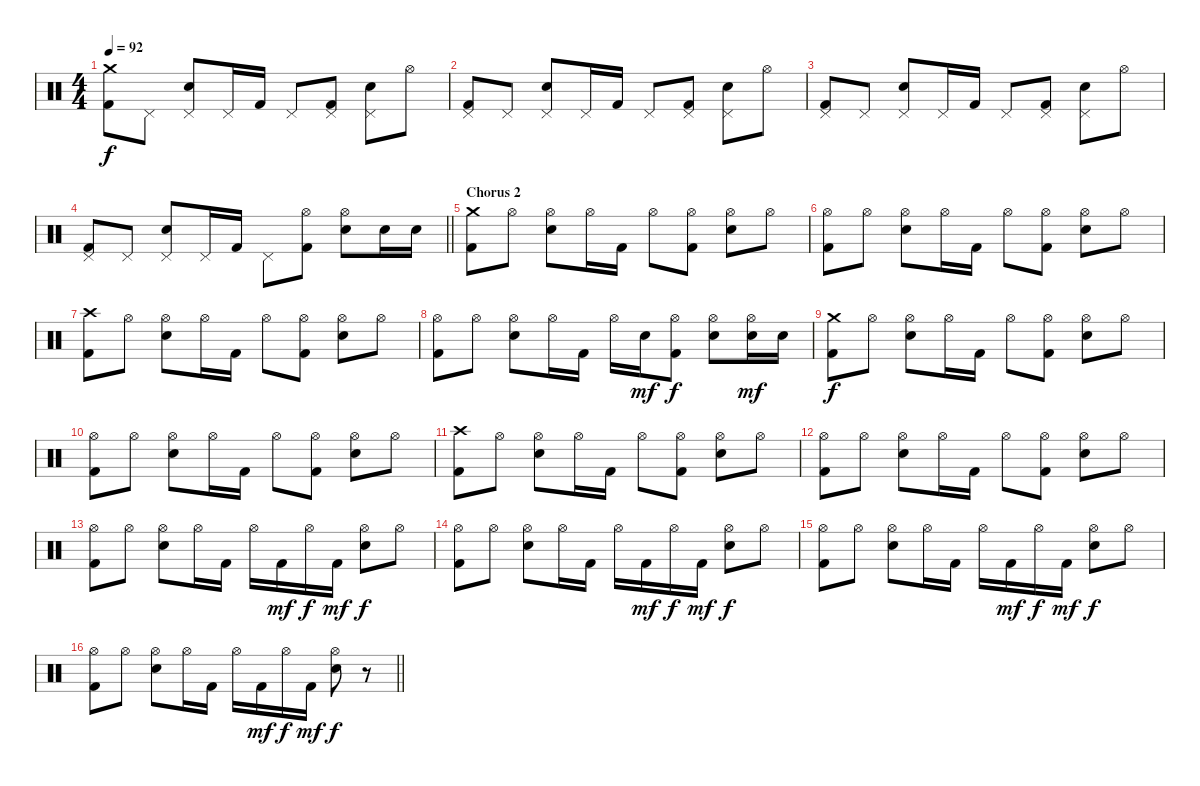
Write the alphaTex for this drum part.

\track "" {instrument percussion}
\staff {score}
\articulation defaults
\ts (4 4)
\tempo 92
\clef neutral
\ks c
("Crash medium (hit)" "Kick (hit) 2").8{dy f} "Pedal Hi-Hat (hit)".8 ("Pedal Hi-Hat (hit)" "Electric Snare (hit)").8 "Pedal Hi-Hat (hit)".16 "Kick (hit) 2".16 "Pedal Hi-Hat (hit)".8 ("Pedal Hi-Hat (hit)" "Kick (hit) 2").8 ("Pedal Hi-Hat (hit)" "Electric Snare (hit)").8 "Hi-Hat (open)".8 |
("Pedal Hi-Hat (hit)" "Kick (hit) 2").8 "Pedal Hi-Hat (hit)".8 ("Pedal Hi-Hat (hit)" "Electric Snare (hit)").8 "Pedal Hi-Hat (hit)".16 "Kick (hit) 2".16 "Pedal Hi-Hat (hit)".8 ("Pedal Hi-Hat (hit)" "Kick (hit) 2").8 ("Pedal Hi-Hat (hit)" "Electric Snare (hit)").8 "Hi-Hat (open)".8 |
("Pedal Hi-Hat (hit)" "Kick (hit) 2").8 "Pedal Hi-Hat (hit)".8 ("Pedal Hi-Hat (hit)" "Electric Snare (hit)").8 "Pedal Hi-Hat (hit)".16 "Kick (hit) 2".16 "Pedal Hi-Hat (hit)".8 ("Pedal Hi-Hat (hit)" "Kick (hit) 2").8 ("Pedal Hi-Hat (hit)" "Electric Snare (hit)").8 "Hi-Hat (open)".8 |
\barLineRight lightlight
("Pedal Hi-Hat (hit)" "Kick (hit) 2").8 "Pedal Hi-Hat (hit)".8 ("Pedal Hi-Hat (hit)" "Electric Snare (hit)").8 "Pedal Hi-Hat (hit)".16 "Kick (hit) 2".16 "Pedal Hi-Hat (hit)".8 ("Hi-Hat (open)" "Kick (hit) 2").8 ("Hi-Hat (open)" "Electric Snare (hit)").8 "Electric Snare (hit)".16 "Electric Snare (hit)".16 |
\section ("" "Chorus 2")
("Crash medium (hit)" "Kick (hit) 2").8 "Hi-Hat (open)".8 ("Hi-Hat (open)" "Electric Snare (hit)").8 "Hi-Hat (open)".16 "Kick (hit) 2".16 "Hi-Hat (open)".8 ("Hi-Hat (open)" "Kick (hit) 2").8 ("Hi-Hat (open)" "Electric Snare (hit)").8 "Hi-Hat (open)".8 |
("Hi-Hat (open)" "Kick (hit) 2").8 "Hi-Hat (open)".8 ("Hi-Hat (open)" "Electric Snare (hit)").8 "Hi-Hat (open)".16 "Kick (hit) 2".16 "Hi-Hat (open)".8 ("Hi-Hat (open)" "Kick (hit) 2").8 ("Hi-Hat (open)" "Electric Snare (hit)").8 "Hi-Hat (open)".8 |
("Crash high (hit)" "Kick (hit) 2").8 "Hi-Hat (open)".8 ("Hi-Hat (open)" "Electric Snare (hit)").8 "Hi-Hat (open)".16 "Kick (hit) 2".16 "Hi-Hat (open)".8 ("Hi-Hat (open)" "Kick (hit) 2").8 ("Hi-Hat (open)" "Electric Snare (hit)").8 "Hi-Hat (open)".8 |
("Hi-Hat (open)" "Kick (hit) 2").8 "Hi-Hat (open)".8 ("Hi-Hat (open)" "Electric Snare (hit)").8 "Hi-Hat (open)".16 "Kick (hit) 2".16 "Hi-Hat (open)".16 "Electric Snare (hit)".16{dy mf} ("Hi-Hat (open)" "Kick (hit) 2").8{dy f} ("Hi-Hat (open)" "Electric Snare (hit)").8 ("Hi-Hat (open)" "Electric Snare (hit)").16{dy mf} "Electric Snare (hit)".16 |
("Crash medium (hit)" "Kick (hit) 2").8{dy f} "Hi-Hat (open)".8 ("Hi-Hat (open)" "Electric Snare (hit)").8 "Hi-Hat (open)".16 "Kick (hit) 2".16 "Hi-Hat (open)".8 ("Hi-Hat (open)" "Kick (hit) 2").8 ("Hi-Hat (open)" "Electric Snare (hit)").8 "Hi-Hat (open)".8 |
("Hi-Hat (open)" "Kick (hit) 2").8 "Hi-Hat (open)".8 ("Hi-Hat (open)" "Electric Snare (hit)").8 "Hi-Hat (open)".16 "Kick (hit) 2".16 "Hi-Hat (open)".8 ("Hi-Hat (open)" "Kick (hit) 2").8 ("Hi-Hat (open)" "Electric Snare (hit)").8 "Hi-Hat (open)".8 |
("Crash high (hit)" "Kick (hit) 2").8 "Hi-Hat (open)".8 ("Hi-Hat (open)" "Electric Snare (hit)").8 "Hi-Hat (open)".16 "Kick (hit) 2".16 "Hi-Hat (open)".8 ("Hi-Hat (open)" "Kick (hit) 2").8 ("Hi-Hat (open)" "Electric Snare (hit)").8 "Hi-Hat (open)".8 |
("Hi-Hat (open)" "Kick (hit) 2").8 "Hi-Hat (open)".8 ("Hi-Hat (open)" "Electric Snare (hit)").8 "Hi-Hat (open)".16 "Kick (hit) 2".16 "Hi-Hat (open)".8 ("Hi-Hat (open)" "Kick (hit) 2").8 ("Hi-Hat (open)" "Electric Snare (hit)").8 "Hi-Hat (open)".8 |
("Hi-Hat (open)" "Kick (hit) 2").8 "Hi-Hat (open)".8 ("Hi-Hat (open)" "Electric Snare (hit)").8 "Hi-Hat (open)".16 "Kick (hit) 2".16 "Hi-Hat (open)".16 "Kick (hit) 2".16{dy mf} "Hi-Hat (open)".16{dy f} "Kick (hit) 2".16{dy mf} ("Hi-Hat (open)" "Electric Snare (hit)").8{dy f} "Hi-Hat (open)".8 |
("Hi-Hat (open)" "Kick (hit) 2").8 "Hi-Hat (open)".8 ("Hi-Hat (open)" "Electric Snare (hit)").8 "Hi-Hat (open)".16 "Kick (hit) 2".16 "Hi-Hat (open)".16 "Kick (hit) 2".16{dy mf} "Hi-Hat (open)".16{dy f} "Kick (hit) 2".16{dy mf} ("Hi-Hat (open)" "Electric Snare (hit)").8{dy f} "Hi-Hat (open)".8 |
("Hi-Hat (open)" "Kick (hit) 2").8 "Hi-Hat (open)".8 ("Hi-Hat (open)" "Electric Snare (hit)").8 "Hi-Hat (open)".16 "Kick (hit) 2".16 "Hi-Hat (open)".16 "Kick (hit) 2".16{dy mf} "Hi-Hat (open)".16{dy f} "Kick (hit) 2".16{dy mf} ("Hi-Hat (open)" "Electric Snare (hit)").8{dy f} "Hi-Hat (open)".8 |
\barLineRight lightlight
("Hi-Hat (open)" "Kick (hit) 2").8 "Hi-Hat (open)".8 ("Hi-Hat (open)" "Electric Snare (hit)").8 "Hi-Hat (open)".16 "Kick (hit) 2".16 "Hi-Hat (open)".16 "Kick (hit) 2".16{dy mf} "Hi-Hat (open)".16{dy f} "Kick (hit) 2".16{dy mf} ("Hi-Hat (open)" "Electric Snare (hit)").8{dy f} r.8
